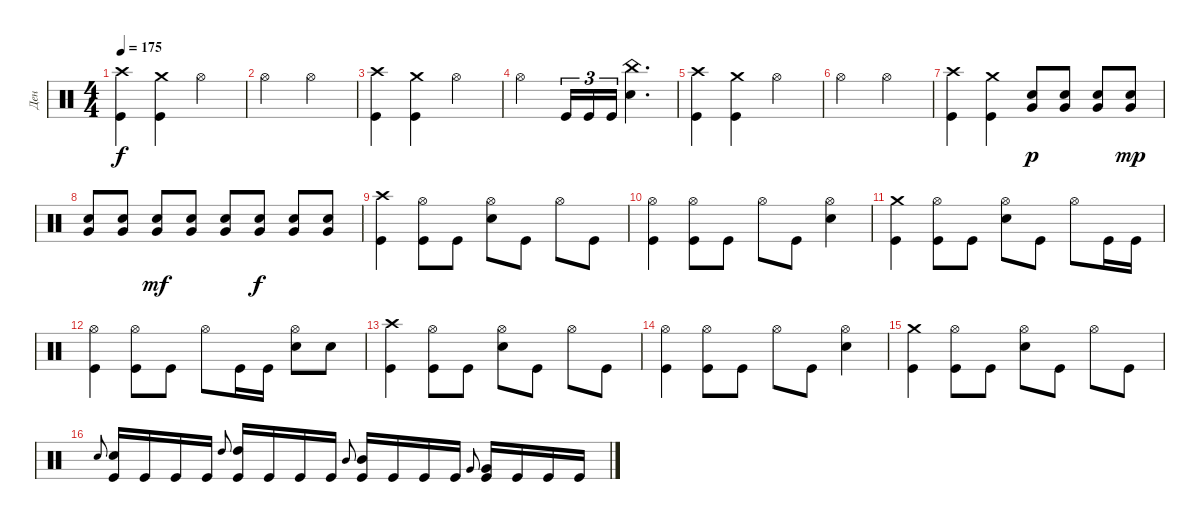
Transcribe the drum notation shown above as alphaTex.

\track ("Ден" "Ден") {instrument percussion}
\staff {score}
\articulation defaults
\ts (4 4)
\tempo 175
\clef neutral
\ks c
("Crash high (hit)" "Kick (hit)").4{dy f} ("Crash medium (hit)" "Kick (hit)").4 "Hi-Hat (open)".2 |
"Hi-Hat (open)".2 "Hi-Hat (open)".2 |
("Crash high (hit)" "Kick (hit)").4 ("Crash medium (hit)" "Kick (hit)").4 "Hi-Hat (open)".2 |
"Hi-Hat (open)".2 "Kick (hit)".16{tu (3 2)} "Kick (hit)".16{tu (3 2)} "Kick (hit)".16{tu (3 2)} ("China (hit)" "Snare (hit) 2").4{d} |
("Crash high (hit)" "Kick (hit)").4 ("Crash medium (hit)" "Kick (hit)").4 "Hi-Hat (open)".2 |
"Hi-Hat (open)".2 "Hi-Hat (open)".2 |
("Crash high (hit)" "Kick (hit)").4 ("Crash medium (hit)" "Kick (hit)").4 ("Snare (hit) 2" "Very Low Tom (hit)").8{dy p} ("Snare (hit) 2" "Very Low Tom (hit)").8 ("Snare (hit) 2" "Very Low Tom (hit)").8 ("Snare (hit) 2" "Very Low Tom (hit)").8{dy mp} |
("Snare (hit) 2" "Very Low Tom (hit)").8 ("Snare (hit) 2" "Very Low Tom (hit)").8 ("Snare (hit) 2" "Very Low Tom (hit)").8{dy mf} ("Snare (hit) 2" "Very Low Tom (hit)").8 ("Snare (hit) 2" "Very Low Tom (hit)").8 ("Snare (hit) 2" "Very Low Tom (hit)").8{dy f} ("Snare (hit) 2" "Very Low Tom (hit)").8 ("Snare (hit) 2" "Very Low Tom (hit)").8 |
("Crash high (hit)" "Kick (hit)").4 ("Hi-Hat (open)" "Kick (hit)").8 "Kick (hit)".8 ("Hi-Hat (open)" "Snare (hit) 2").8 "Kick (hit)".8 "Hi-Hat (open)".8 "Kick (hit)".8 |
("Hi-Hat (open)" "Kick (hit)").4 ("Hi-Hat (open)" "Kick (hit)").8 "Kick (hit)".8 "Hi-Hat (open)".8 "Kick (hit)".8 ("Hi-Hat (open)" "Snare (hit) 2").4 |
("Crash medium (hit)" "Kick (hit)").4 ("Hi-Hat (open)" "Kick (hit)").8 "Kick (hit)".8 ("Hi-Hat (open)" "Snare (hit) 2").8 "Kick (hit)".8 "Hi-Hat (open)".8 "Kick (hit)".16 "Kick (hit)".16 |
("Hi-Hat (open)" "Kick (hit)").4 ("Hi-Hat (open)" "Kick (hit)").8 "Kick (hit)".8 "Hi-Hat (open)".8 "Kick (hit)".16 "Kick (hit)".16 ("Hi-Hat (open)" "Snare (hit) 2").8 "Snare (hit) 2".8 |
("Crash high (hit)" "Kick (hit)").4 ("Hi-Hat (open)" "Kick (hit)").8 "Kick (hit)".8 ("Hi-Hat (open)" "Snare (hit) 2").8 "Kick (hit)".8 "Hi-Hat (open)".8 "Kick (hit)".8 |
("Hi-Hat (open)" "Kick (hit)").4 ("Hi-Hat (open)" "Kick (hit)").8 "Kick (hit)".8 "Hi-Hat (open)".8 "Kick (hit)".8 ("Hi-Hat (open)" "Snare (hit) 2").4 |
("Crash medium (hit)" "Kick (hit)").4 ("Hi-Hat (open)" "Kick (hit)").8 "Kick (hit)".8 ("Hi-Hat (open)" "Snare (hit) 2").8 "Kick (hit)".8 "Hi-Hat (open)".8 "Kick (hit)".8 |
"Snare (hit) 2".8{gr onbeat} ("Snare (hit) 2" "Kick (hit)").16 "Kick (hit)".16 "Kick (hit)".16 "Kick (hit)".16 "High Tom (hit)".8{gr onbeat} ("High Tom (hit)" "Kick (hit)").16 "Kick (hit)".16 "Kick (hit)".16 "Kick (hit)".16 "Mid Tom (hit)".8{gr onbeat} ("Mid Tom (hit)" "Kick (hit)").16 "Kick (hit)".16 "Kick (hit)".16 "Kick (hit)".16 "Very Low Tom (hit)".8{gr onbeat} ("Very Low Tom (hit)" "Kick (hit)").16 "Kick (hit)".16 "Kick (hit)".16 "Kick (hit)".16
